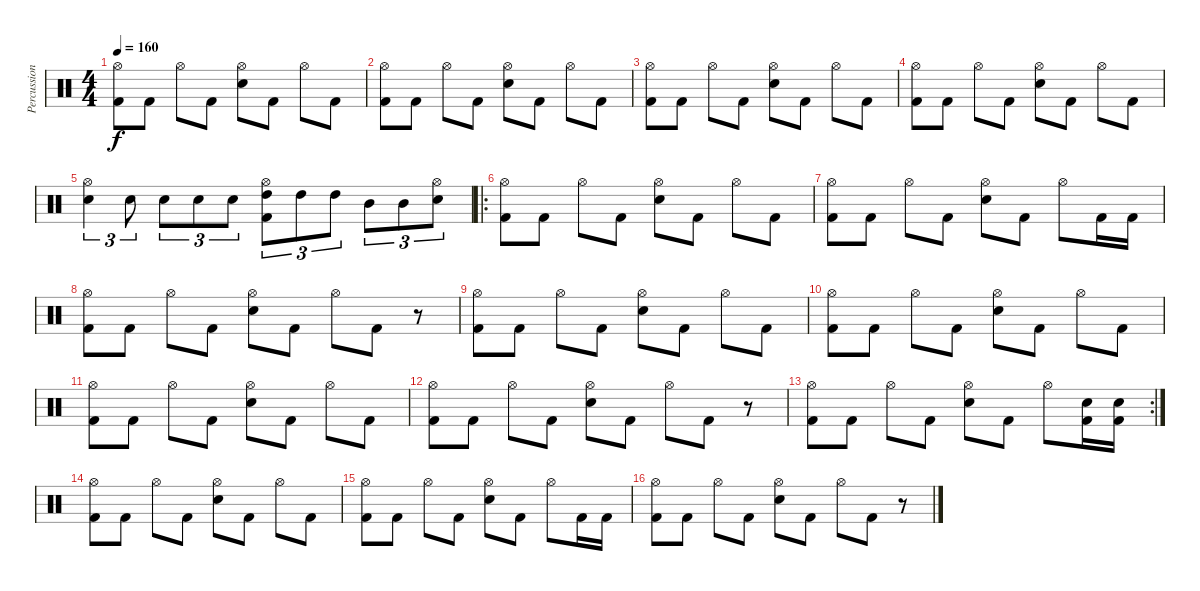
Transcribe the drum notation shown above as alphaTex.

\track ("Percussion" "Percussion") {instrument percussion}
\staff {score}
\articulation defaults
\ts (4 4)
\tempo 160
\clef neutral
\ks c
("Hi-Hat (open)" "Kick (hit) 2").8{dy f} "Kick (hit) 2".8 "Hi-Hat (open)".8 "Kick (hit) 2".8 ("Hi-Hat (open)" "Snare (hit) 2").8 "Kick (hit) 2".8 "Hi-Hat (open)".8 "Kick (hit) 2".8 |
("Hi-Hat (open)" "Kick (hit) 2").8 "Kick (hit) 2".8 "Hi-Hat (open)".8 "Kick (hit) 2".8 ("Hi-Hat (open)" "Snare (hit) 2").8 "Kick (hit) 2".8 "Hi-Hat (open)".8 "Kick (hit) 2".8 |
("Hi-Hat (open)" "Kick (hit) 2").8 "Kick (hit) 2".8 "Hi-Hat (open)".8 "Kick (hit) 2".8 ("Hi-Hat (open)" "Snare (hit) 2").8 "Kick (hit) 2".8 "Hi-Hat (open)".8 "Kick (hit) 2".8 |
("Hi-Hat (open)" "Kick (hit) 2").8 "Kick (hit) 2".8 "Hi-Hat (open)".8 "Kick (hit) 2".8 ("Hi-Hat (open)" "Snare (hit) 2").8 "Kick (hit) 2".8 "Hi-Hat (open)".8 "Kick (hit) 2".8 |
("Hi-Hat (open)" "Snare (hit) 2").4{tu (3 2)} "Snare (hit) 2".8{tu (3 2)} "Snare (hit) 2".8{tu (3 2)} "Snare (hit) 2".8{tu (3 2)} "Snare (hit) 2".8{tu (3 2)} ("Hi-Hat (open)" "High Tom (hit)" "Kick (hit) 2").8{tu (3 2)} "High Tom (hit)".8{tu (3 2)} "High Tom (hit)".8{tu (3 2)} "Mid Tom (hit)".8{tu (3 2)} "Mid Tom (hit)".8{tu (3 2)} ("Hi-Hat (open)" "Snare (hit) 2").8{tu (3 2)} |
\ro
("Hi-Hat (open)" "Kick (hit) 2").8 "Kick (hit) 2".8 "Hi-Hat (open)".8 "Kick (hit) 2".8 ("Hi-Hat (open)" "Snare (hit) 2").8 "Kick (hit) 2".8 "Hi-Hat (open)".8 "Kick (hit) 2".8 |
("Hi-Hat (open)" "Kick (hit) 2").8 "Kick (hit) 2".8 "Hi-Hat (open)".8 "Kick (hit) 2".8 ("Hi-Hat (open)" "Snare (hit) 2").8 "Kick (hit) 2".8 "Hi-Hat (open)".8 "Kick (hit) 2".16 "Kick (hit) 2".16 |
("Hi-Hat (open)" "Kick (hit) 2").8 "Kick (hit) 2".8 "Hi-Hat (open)".8 "Kick (hit) 2".8 ("Hi-Hat (open)" "Snare (hit) 2").8 "Kick (hit) 2".8 "Hi-Hat (open)".8 "Kick (hit) 2".8 r.8 |
("Hi-Hat (open)" "Kick (hit) 2").8 "Kick (hit) 2".8 "Hi-Hat (open)".8 "Kick (hit) 2".8 ("Hi-Hat (open)" "Snare (hit) 2").8 "Kick (hit) 2".8 "Hi-Hat (open)".8 "Kick (hit) 2".8 |
("Hi-Hat (open)" "Kick (hit) 2").8 "Kick (hit) 2".8 "Hi-Hat (open)".8 "Kick (hit) 2".8 ("Hi-Hat (open)" "Snare (hit) 2").8 "Kick (hit) 2".8 "Hi-Hat (open)".8 "Kick (hit) 2".8 |
("Hi-Hat (open)" "Kick (hit) 2").8 "Kick (hit) 2".8 "Hi-Hat (open)".8 "Kick (hit) 2".8 ("Hi-Hat (open)" "Snare (hit) 2").8 "Kick (hit) 2".8 "Hi-Hat (open)".8 "Kick (hit) 2".8 |
("Hi-Hat (open)" "Kick (hit) 2").8 "Kick (hit) 2".8 "Hi-Hat (open)".8 "Kick (hit) 2".8 ("Hi-Hat (open)" "Snare (hit) 2").8 "Kick (hit) 2".8 "Hi-Hat (open)".8 "Kick (hit) 2".8 r.8 |
\rc 2
("Hi-Hat (open)" "Kick (hit) 2").8 "Kick (hit) 2".8 "Hi-Hat (open)".8 "Kick (hit) 2".8 ("Hi-Hat (open)" "Snare (hit) 2").8 "Kick (hit) 2".8 "Hi-Hat (open)".8 ("Kick (hit) 2" "Electric Snare (hit)").16 ("Kick (hit) 2" "Electric Snare (hit)").16 |
("Hi-Hat (open)" "Kick (hit) 2").8 "Kick (hit) 2".8 "Hi-Hat (open)".8 "Kick (hit) 2".8 ("Hi-Hat (open)" "Snare (hit) 2").8 "Kick (hit) 2".8 "Hi-Hat (open)".8 "Kick (hit) 2".8 |
("Hi-Hat (open)" "Kick (hit) 2").8 "Kick (hit) 2".8 "Hi-Hat (open)".8 "Kick (hit) 2".8 ("Hi-Hat (open)" "Snare (hit) 2").8 "Kick (hit) 2".8 "Hi-Hat (open)".8 "Kick (hit) 2".16 "Kick (hit) 2".16 |
("Hi-Hat (open)" "Kick (hit) 2").8 "Kick (hit) 2".8 "Hi-Hat (open)".8 "Kick (hit) 2".8 ("Hi-Hat (open)" "Snare (hit) 2").8 "Kick (hit) 2".8 "Hi-Hat (open)".8 "Kick (hit) 2".8 r.8
